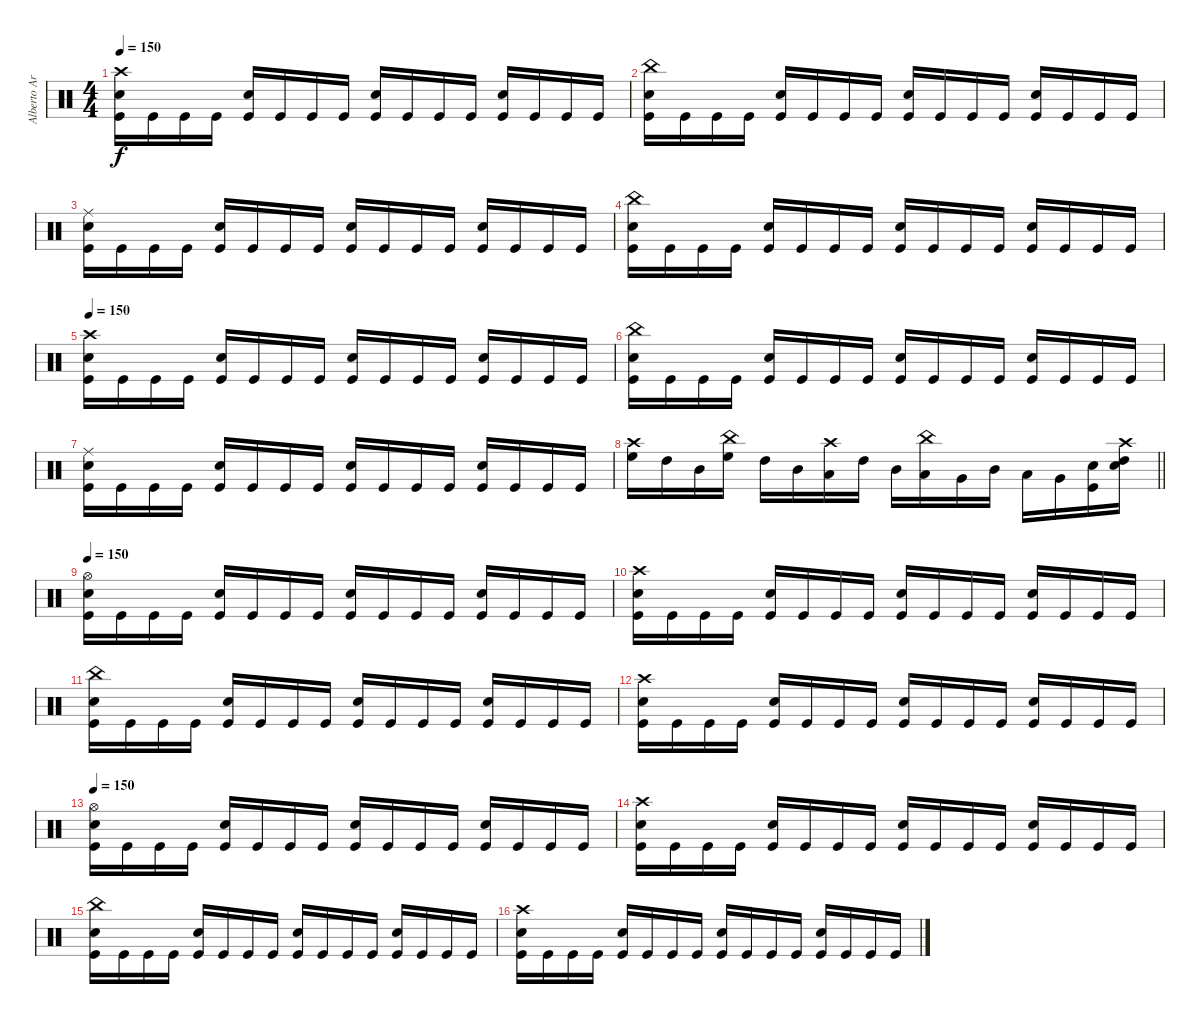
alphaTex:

\track ("Alberto Ardines" "Alberto Ar") {instrument percussion}
\staff {score}
\articulation defaults
\ts (4 4)
\tempo 150
\clef neutral
\ks c
("Crash high (hit)" "Kick (hit)" "Snare (hit) 2").16{dy f} "Kick (hit)".16 "Kick (hit)".16 "Kick (hit)".16 ("Kick (hit)" "Snare (hit) 2").16 "Kick (hit)".16 "Kick (hit)".16 "Kick (hit)".16 ("Kick (hit)" "Snare (hit) 2").16 "Kick (hit)".16 "Kick (hit)".16 "Kick (hit)".16 ("Kick (hit)" "Snare (hit) 2").16 "Kick (hit)".16 "Kick (hit)".16 "Kick (hit)".16 |
("China (hit)" "Kick (hit)" "Snare (hit) 2").16 "Kick (hit)".16 "Kick (hit)".16 "Kick (hit)".16 ("Kick (hit)" "Snare (hit) 2").16 "Kick (hit)".16 "Kick (hit)".16 "Kick (hit)".16 ("Kick (hit)" "Snare (hit) 2").16 "Kick (hit)".16 "Kick (hit)".16 "Kick (hit)".16 ("Kick (hit)" "Snare (hit) 2").16 "Kick (hit)".16 "Kick (hit)".16 "Kick (hit)".16 |
("Ride (middle)" "Kick (hit)" "Snare (hit) 2").16 "Kick (hit)".16 "Kick (hit)".16 "Kick (hit)".16 ("Kick (hit)" "Snare (hit) 2").16 "Kick (hit)".16 "Kick (hit)".16 "Kick (hit)".16 ("Kick (hit)" "Snare (hit) 2").16 "Kick (hit)".16 "Kick (hit)".16 "Kick (hit)".16 ("Kick (hit)" "Snare (hit) 2").16 "Kick (hit)".16 "Kick (hit)".16 "Kick (hit)".16 |
("China (hit)" "Kick (hit)" "Snare (hit) 2").16 "Kick (hit)".16 "Kick (hit)".16 "Kick (hit)".16 ("Kick (hit)" "Snare (hit) 2").16 "Kick (hit)".16 "Kick (hit)".16 "Kick (hit)".16 ("Kick (hit)" "Snare (hit) 2").16 "Kick (hit)".16 "Kick (hit)".16 "Kick (hit)".16 ("Kick (hit)" "Snare (hit) 2").16 "Kick (hit)".16 "Kick (hit)".16 "Kick (hit)".16 |
\tempo 150
("Crash high (hit)" "Kick (hit)" "Snare (hit) 2").16 "Kick (hit)".16 "Kick (hit)".16 "Kick (hit)".16 ("Kick (hit)" "Snare (hit) 2").16 "Kick (hit)".16 "Kick (hit)".16 "Kick (hit)".16 ("Kick (hit)" "Snare (hit) 2").16 "Kick (hit)".16 "Kick (hit)".16 "Kick (hit)".16 ("Kick (hit)" "Snare (hit) 2").16 "Kick (hit)".16 "Kick (hit)".16 "Kick (hit)".16 |
("China (hit)" "Kick (hit)" "Snare (hit) 2").16 "Kick (hit)".16 "Kick (hit)".16 "Kick (hit)".16 ("Kick (hit)" "Snare (hit) 2").16 "Kick (hit)".16 "Kick (hit)".16 "Kick (hit)".16 ("Kick (hit)" "Snare (hit) 2").16 "Kick (hit)".16 "Kick (hit)".16 "Kick (hit)".16 ("Kick (hit)" "Snare (hit) 2").16 "Kick (hit)".16 "Kick (hit)".16 "Kick (hit)".16 |
("Ride (middle)" "Kick (hit)" "Snare (hit) 2").16 "Kick (hit)".16 "Kick (hit)".16 "Kick (hit)".16 ("Kick (hit)" "Snare (hit) 2").16 "Kick (hit)".16 "Kick (hit)".16 "Kick (hit)".16 ("Kick (hit)" "Snare (hit) 2").16 "Kick (hit)".16 "Kick (hit)".16 "Kick (hit)".16 ("Kick (hit)" "Snare (hit) 2").16 "Kick (hit)".16 "Kick (hit)".16 "Kick (hit)".16 |
\barLineRight lightlight
("Crash high (hit)" "High Floor Tom (hit)").16 "High Tom (hit)".16 "Mid Tom (hit)".16 ("China (hit)" "High Floor Tom (hit)").16 "High Tom (hit)".16 "Mid Tom (hit)".16 ("Crash high (hit)" "Low Tom (hit)").16 "High Tom (hit)".16 "Mid Tom (hit)".16 ("China (hit)" "Low Tom (hit)").16 "Very Low Tom (hit)".16 "Mid Tom (hit)".16 "Low Tom (hit)".16 "Very Low Tom (hit)".16 ("Snare (hit) 2" "Kick (hit)").16 ("High Tom (hit)" "Snare (hit) 2" "Crash high (hit)").16 |
\tempo 150
("Hi-Hat (open)" "Kick (hit)" "Snare (hit) 2").16 "Kick (hit)".16 "Kick (hit)".16 "Kick (hit)".16 ("Kick (hit)" "Snare (hit) 2").16 "Kick (hit)".16 "Kick (hit)".16 "Kick (hit)".16 ("Kick (hit)" "Snare (hit) 2").16 "Kick (hit)".16 "Kick (hit)".16 "Kick (hit)".16 ("Kick (hit)" "Snare (hit) 2").16 "Kick (hit)".16 "Kick (hit)".16 "Kick (hit)".16 |
("Crash high (hit)" "Kick (hit)" "Snare (hit) 2").16 "Kick (hit)".16 "Kick (hit)".16 "Kick (hit)".16 ("Kick (hit)" "Snare (hit) 2").16 "Kick (hit)".16 "Kick (hit)".16 "Kick (hit)".16 ("Kick (hit)" "Snare (hit) 2").16 "Kick (hit)".16 "Kick (hit)".16 "Kick (hit)".16 ("Kick (hit)" "Snare (hit) 2").16 "Kick (hit)".16 "Kick (hit)".16 "Kick (hit)".16 |
("China (hit)" "Kick (hit)" "Snare (hit) 2").16 "Kick (hit)".16 "Kick (hit)".16 "Kick (hit)".16 ("Kick (hit)" "Snare (hit) 2").16 "Kick (hit)".16 "Kick (hit)".16 "Kick (hit)".16 ("Kick (hit)" "Snare (hit) 2").16 "Kick (hit)".16 "Kick (hit)".16 "Kick (hit)".16 ("Kick (hit)" "Snare (hit) 2").16 "Kick (hit)".16 "Kick (hit)".16 "Kick (hit)".16 |
("Crash high (hit)" "Kick (hit)" "Snare (hit) 2").16 "Kick (hit)".16 "Kick (hit)".16 "Kick (hit)".16 ("Kick (hit)" "Snare (hit) 2").16 "Kick (hit)".16 "Kick (hit)".16 "Kick (hit)".16 ("Kick (hit)" "Snare (hit) 2").16 "Kick (hit)".16 "Kick (hit)".16 "Kick (hit)".16 ("Kick (hit)" "Snare (hit) 2").16 "Kick (hit)".16 "Kick (hit)".16 "Kick (hit)".16 |
\tempo 150
("Hi-Hat (open)" "Kick (hit)" "Snare (hit) 2").16 "Kick (hit)".16 "Kick (hit)".16 "Kick (hit)".16 ("Kick (hit)" "Snare (hit) 2").16 "Kick (hit)".16 "Kick (hit)".16 "Kick (hit)".16 ("Kick (hit)" "Snare (hit) 2").16 "Kick (hit)".16 "Kick (hit)".16 "Kick (hit)".16 ("Kick (hit)" "Snare (hit) 2").16 "Kick (hit)".16 "Kick (hit)".16 "Kick (hit)".16 |
("Crash high (hit)" "Kick (hit)" "Snare (hit) 2").16 "Kick (hit)".16 "Kick (hit)".16 "Kick (hit)".16 ("Kick (hit)" "Snare (hit) 2").16 "Kick (hit)".16 "Kick (hit)".16 "Kick (hit)".16 ("Kick (hit)" "Snare (hit) 2").16 "Kick (hit)".16 "Kick (hit)".16 "Kick (hit)".16 ("Kick (hit)" "Snare (hit) 2").16 "Kick (hit)".16 "Kick (hit)".16 "Kick (hit)".16 |
("China (hit)" "Kick (hit)" "Snare (hit) 2").16 "Kick (hit)".16 "Kick (hit)".16 "Kick (hit)".16 ("Kick (hit)" "Snare (hit) 2").16 "Kick (hit)".16 "Kick (hit)".16 "Kick (hit)".16 ("Kick (hit)" "Snare (hit) 2").16 "Kick (hit)".16 "Kick (hit)".16 "Kick (hit)".16 ("Kick (hit)" "Snare (hit) 2").16 "Kick (hit)".16 "Kick (hit)".16 "Kick (hit)".16 |
("Crash high (hit)" "Kick (hit)" "Snare (hit) 2").16 "Kick (hit)".16 "Kick (hit)".16 "Kick (hit)".16 ("Kick (hit)" "Snare (hit) 2").16 "Kick (hit)".16 "Kick (hit)".16 "Kick (hit)".16 ("Kick (hit)" "Snare (hit) 2").16 "Kick (hit)".16 "Kick (hit)".16 "Kick (hit)".16 ("Kick (hit)" "Snare (hit) 2").16 "Kick (hit)".16 "Kick (hit)".16 "Kick (hit)".16
